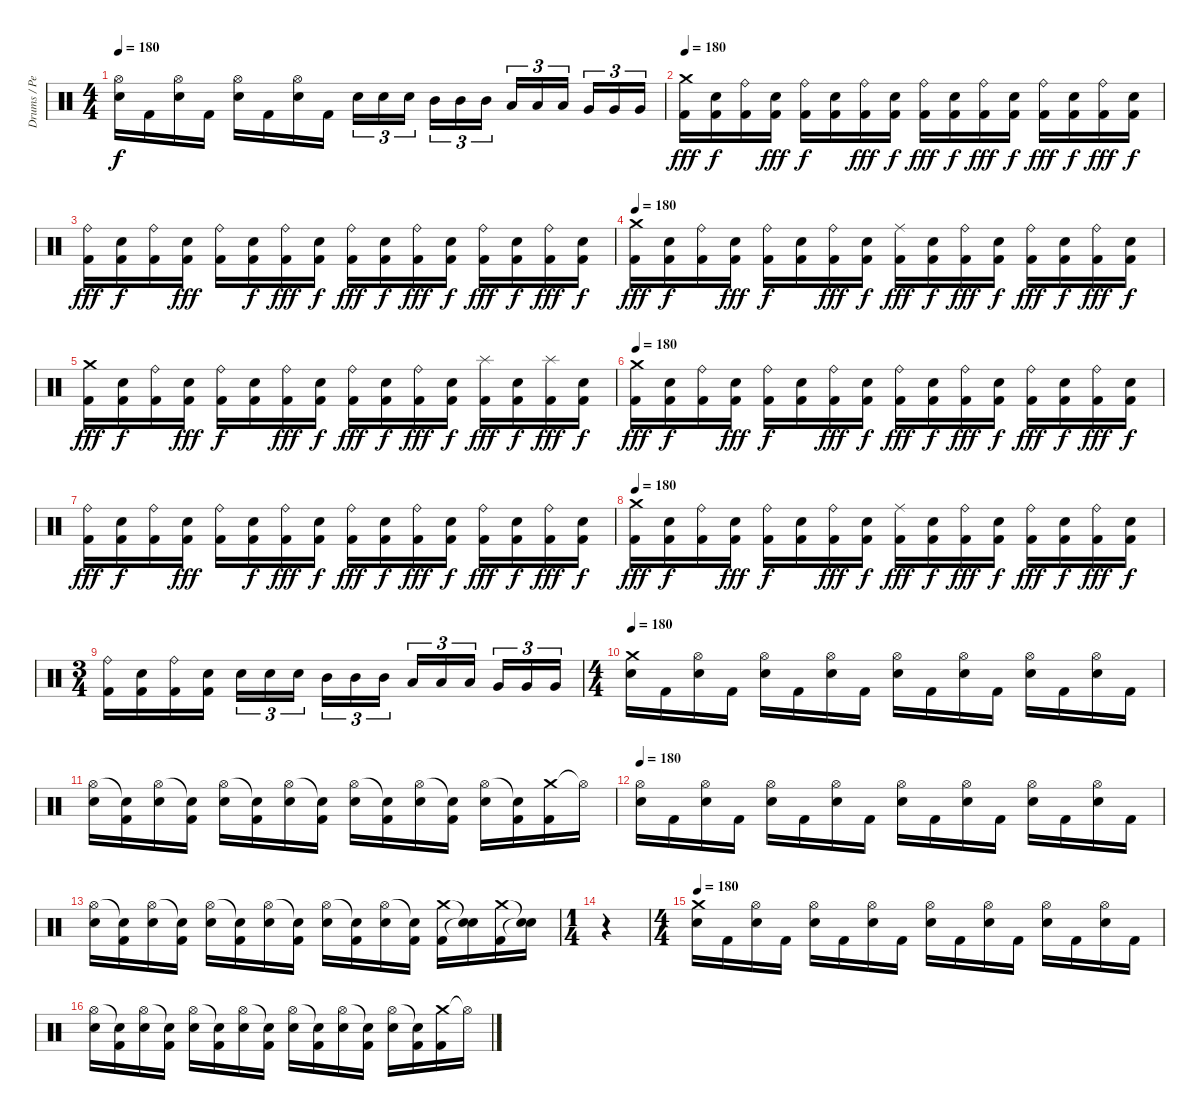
\track ("Drums / Percussion" "Drums / Pe") {instrument percussion}
\staff {score}
\articulation defaults
\ts (4 4)
\tempo 180
\clef neutral
\ks c
("Hi-Hat (open)" "Electric Snare (hit)").16{dy f} "Kick (hit) 2".16 ("Hi-Hat (open)" "Electric Snare (hit)").16 "Kick (hit) 2".16 ("Hi-Hat (open)" "Electric Snare (hit)").16 "Kick (hit) 2".16 ("Hi-Hat (open)" "Electric Snare (hit)").16 "Kick (hit) 2".16 "Snare (hit) 2".16{tu (3 2)} "Snare (hit) 2".16{tu (3 2)} "Snare (hit) 2".16{tu (3 2)} "Mid Tom (hit)".16{tu (3 2)} "Mid Tom (hit)".16{tu (3 2)} "Mid Tom (hit)".16{tu (3 2)} "Low Tom (hit)".16{tu (3 2)} "Low Tom (hit)".16{tu (3 2)} "Low Tom (hit)".16{tu (3 2)} "Very Low Tom (hit)".16{tu (3 2)} "Very Low Tom (hit)".16{tu (3 2)} "Very Low Tom (hit)".16{tu (3 2)} |
\tempo 180
("Crash medium (hit)" "Kick (hit) 2").16{dy fff} ("Snare (hit) 2" "Kick (hit) 2").16{dy f} ("Ride (bell)" "Kick (hit) 2").16 ("Snare (hit) 2" "Kick (hit) 2").16{dy fff} ("Ride (bell)" "Kick (hit) 2").16{dy f} ("Snare (hit) 2" "Kick (hit) 2").16 ("Ride (bell)" "Kick (hit) 2").16{dy fff} ("Snare (hit) 2" "Kick (hit) 2").16{dy f} ("Ride (bell)" "Kick (hit) 2").16{dy fff} ("Snare (hit) 2" "Kick (hit) 2").16{dy f} ("Ride (bell)" "Kick (hit) 2").16{dy fff} ("Snare (hit) 2" "Kick (hit) 2").16{dy f} ("Ride (bell)" "Kick (hit) 2").16{dy fff} ("Snare (hit) 2" "Kick (hit) 2").16{dy f} ("Ride (bell)" "Kick (hit) 2").16{dy fff} ("Snare (hit) 2" "Kick (hit) 2").16{dy f} |
("Ride (bell)" "Kick (hit) 2").16{dy fff} ("Snare (hit) 2" "Kick (hit) 2").16{dy f} ("Ride (bell)" "Kick (hit) 2").16 ("Snare (hit) 2" "Kick (hit) 2").16{dy fff} ("Ride (bell)" "Kick (hit) 2").16 ("Snare (hit) 2" "Kick (hit) 2").16{dy f} ("Ride (bell)" "Kick (hit) 2").16{dy fff} ("Snare (hit) 2" "Kick (hit) 2").16{dy f} ("Ride (bell)" "Kick (hit) 2").16{dy fff} ("Snare (hit) 2" "Kick (hit) 2").16{dy f} ("Ride (bell)" "Kick (hit) 2").16{dy fff} ("Snare (hit) 2" "Kick (hit) 2").16{dy f} ("Ride (bell)" "Kick (hit) 2").16{dy fff} ("Snare (hit) 2" "Kick (hit) 2").16{dy f} ("Ride (bell)" "Kick (hit) 2").16{dy fff} ("Snare (hit) 2" "Kick (hit) 2").16{dy f} |
\tempo 180
("Crash medium (hit)" "Kick (hit) 2").16{dy fff} ("Snare (hit) 2" "Kick (hit) 2").16{dy f} ("Ride (bell)" "Kick (hit) 2").16 ("Snare (hit) 2" "Kick (hit) 2").16{dy fff} ("Ride (bell)" "Kick (hit) 2").16{dy f} ("Snare (hit) 2" "Kick (hit) 2").16 ("Ride (bell)" "Kick (hit) 2").16{dy fff} ("Snare (hit) 2" "Kick (hit) 2").16{dy f} ("Ride (middle)" "Kick (hit) 2").16{dy fff} ("Snare (hit) 2" "Kick (hit) 2").16{dy f} ("Ride (bell)" "Kick (hit) 2").16{dy fff} ("Snare (hit) 2" "Kick (hit) 2").16{dy f} ("Ride (bell)" "Kick (hit) 2").16{dy fff} ("Snare (hit) 2" "Kick (hit) 2").16{dy f} ("Ride (bell)" "Kick (hit) 2").16{dy fff} ("Snare (hit) 2" "Kick (hit) 2").16{dy f} |
("Crash medium (hit)" "Kick (hit) 2").16{dy fff} ("Snare (hit) 2" "Kick (hit) 2").16{dy f} ("Ride (bell)" "Kick (hit) 2").16 ("Snare (hit) 2" "Kick (hit) 2").16{dy fff} ("Ride (bell)" "Kick (hit) 2").16{dy f} ("Snare (hit) 2" "Kick (hit) 2").16 ("Ride (bell)" "Kick (hit) 2").16{dy fff} ("Snare (hit) 2" "Kick (hit) 2").16{dy f} ("Ride (bell)" "Kick (hit) 2").16{dy fff} ("Snare (hit) 2" "Kick (hit) 2").16{dy f} ("Ride (bell)" "Kick (hit) 2").16{dy fff} ("Snare (hit) 2" "Kick (hit) 2").16{dy f} ("Splash (hit)" "Kick (hit) 2").16{dy fff} ("Snare (hit) 2" "Kick (hit) 2").16{dy f} ("Splash (hit)" "Kick (hit) 2").16{dy fff} ("Snare (hit) 2" "Kick (hit) 2").16{dy f} |
\tempo 180
("Crash medium (hit)" "Kick (hit) 2").16{dy fff} ("Snare (hit) 2" "Kick (hit) 2").16{dy f} ("Ride (bell)" "Kick (hit) 2").16 ("Snare (hit) 2" "Kick (hit) 2").16{dy fff} ("Ride (bell)" "Kick (hit) 2").16{dy f} ("Snare (hit) 2" "Kick (hit) 2").16 ("Ride (bell)" "Kick (hit) 2").16{dy fff} ("Snare (hit) 2" "Kick (hit) 2").16{dy f} ("Ride (bell)" "Kick (hit) 2").16{dy fff} ("Snare (hit) 2" "Kick (hit) 2").16{dy f} ("Ride (bell)" "Kick (hit) 2").16{dy fff} ("Snare (hit) 2" "Kick (hit) 2").16{dy f} ("Ride (bell)" "Kick (hit) 2").16{dy fff} ("Snare (hit) 2" "Kick (hit) 2").16{dy f} ("Ride (bell)" "Kick (hit) 2").16{dy fff} ("Snare (hit) 2" "Kick (hit) 2").16{dy f} |
("Ride (bell)" "Kick (hit) 2").16{dy fff} ("Snare (hit) 2" "Kick (hit) 2").16{dy f} ("Ride (bell)" "Kick (hit) 2").16 ("Snare (hit) 2" "Kick (hit) 2").16{dy fff} ("Ride (bell)" "Kick (hit) 2").16 ("Snare (hit) 2" "Kick (hit) 2").16{dy f} ("Ride (bell)" "Kick (hit) 2").16{dy fff} ("Snare (hit) 2" "Kick (hit) 2").16{dy f} ("Ride (bell)" "Kick (hit) 2").16{dy fff} ("Snare (hit) 2" "Kick (hit) 2").16{dy f} ("Ride (bell)" "Kick (hit) 2").16{dy fff} ("Snare (hit) 2" "Kick (hit) 2").16{dy f} ("Ride (bell)" "Kick (hit) 2").16{dy fff} ("Snare (hit) 2" "Kick (hit) 2").16{dy f} ("Ride (bell)" "Kick (hit) 2").16{dy fff} ("Snare (hit) 2" "Kick (hit) 2").16{dy f} |
\tempo 180
("Crash medium (hit)" "Kick (hit) 2").16{dy fff} ("Snare (hit) 2" "Kick (hit) 2").16{dy f} ("Ride (bell)" "Kick (hit) 2").16 ("Snare (hit) 2" "Kick (hit) 2").16{dy fff} ("Ride (bell)" "Kick (hit) 2").16{dy f} ("Snare (hit) 2" "Kick (hit) 2").16 ("Ride (bell)" "Kick (hit) 2").16{dy fff} ("Snare (hit) 2" "Kick (hit) 2").16{dy f} ("Ride (middle)" "Kick (hit) 2").16{dy fff} ("Snare (hit) 2" "Kick (hit) 2").16{dy f} ("Ride (bell)" "Kick (hit) 2").16{dy fff} ("Snare (hit) 2" "Kick (hit) 2").16{dy f} ("Ride (bell)" "Kick (hit) 2").16{dy fff} ("Snare (hit) 2" "Kick (hit) 2").16{dy f} ("Ride (bell)" "Kick (hit) 2").16{dy fff} ("Snare (hit) 2" "Kick (hit) 2").16{dy f} |
\ts (3 4)
("Ride (bell)" "Kick (hit) 2").16 ("Snare (hit) 2" "Kick (hit) 2").16 ("Ride (bell)" "Kick (hit) 2").16 ("Snare (hit) 2" "Kick (hit) 2").16 "Snare (hit) 2".16{tu (3 2)} "Snare (hit) 2".16{tu (3 2)} "Snare (hit) 2".16{tu (3 2)} "Mid Tom (hit)".16{tu (3 2)} "Mid Tom (hit)".16{tu (3 2)} "Mid Tom (hit)".16{tu (3 2)} "Low Tom (hit)".16{tu (3 2)} "Low Tom (hit)".16{tu (3 2)} "Low Tom (hit)".16{tu (3 2)} "Very Low Tom (hit)".16{tu (3 2)} "Very Low Tom (hit)".16{tu (3 2)} "Very Low Tom (hit)".16{tu (3 2)} |
\ts (4 4)
\tempo 180
("Crash medium (hit)" "Electric Snare (hit)").16 "Kick (hit) 2".16 ("Hi-Hat (open)" "Electric Snare (hit)").16 "Kick (hit) 2".16 ("Hi-Hat (open)" "Electric Snare (hit)").16 "Kick (hit) 2".16 ("Hi-Hat (open)" "Electric Snare (hit)").16 "Kick (hit) 2".16 ("Hi-Hat (open)" "Electric Snare (hit)").16 "Kick (hit) 2".16 ("Hi-Hat (open)" "Electric Snare (hit)").16 "Kick (hit) 2".16 ("Hi-Hat (open)" "Electric Snare (hit)").16 "Kick (hit) 2".16 ("Hi-Hat (open)" "Electric Snare (hit)").16 "Kick (hit) 2".16 |
("Hi-Hat (open)" "Electric Snare (hit)").16 ("Snare (hit)"{t} "Kick (hit) 2").16 ("Hi-Hat (open)" "Electric Snare (hit)").16 ("Snare (hit)"{t} "Kick (hit) 2").16 ("Hi-Hat (open)" "Electric Snare (hit)").16 ("Snare (hit)"{t} "Kick (hit) 2").16 ("Hi-Hat (open)" "Electric Snare (hit)").16 ("Snare (hit)"{t} "Kick (hit) 2").16 ("Hi-Hat (open)" "Electric Snare (hit)").16 ("Snare (hit)"{t} "Kick (hit) 2").16 ("Hi-Hat (open)" "Electric Snare (hit)").16 ("Snare (hit)"{t} "Kick (hit) 2").16 ("Hi-Hat (open)" "Electric Snare (hit)").16 ("Snare (hit)"{t} "Kick (hit) 2").16 ("Crash medium (hit)" "Kick (hit) 2").16 "Hi-Hat (open)"{t}.16 |
\tempo 180
("Hi-Hat (open)" "Electric Snare (hit)").16 "Kick (hit) 2".16 ("Hi-Hat (open)" "Electric Snare (hit)").16 "Kick (hit) 2".16 ("Hi-Hat (open)" "Electric Snare (hit)").16 "Kick (hit) 2".16 ("Hi-Hat (open)" "Electric Snare (hit)").16 "Kick (hit) 2".16 ("Hi-Hat (open)" "Electric Snare (hit)").16 "Kick (hit) 2".16 ("Hi-Hat (open)" "Electric Snare (hit)").16 "Kick (hit) 2".16 ("Hi-Hat (open)" "Electric Snare (hit)").16 "Kick (hit) 2".16 ("Hi-Hat (open)" "Electric Snare (hit)").16 "Kick (hit) 2".16 |
("Hi-Hat (open)" "Electric Snare (hit)").16 ("Snare (hit)"{t} "Kick (hit) 2").16 ("Hi-Hat (open)" "Electric Snare (hit)").16 ("Snare (hit)"{t} "Kick (hit) 2").16 ("Hi-Hat (open)" "Electric Snare (hit)").16 ("Snare (hit)"{t} "Kick (hit) 2").16 ("Hi-Hat (open)" "Electric Snare (hit)").16 ("Snare (hit)"{t} "Kick (hit) 2").16 ("Hi-Hat (open)" "Electric Snare (hit)").16 ("Snare (hit)"{t} "Kick (hit) 2").16 ("Hi-Hat (open)" "Electric Snare (hit)").16 ("Snare (hit)"{t} "Kick (hit) 2").16 ("Crash medium (hit)" "Kick (hit) 2").16 ("Snare (hit)"{t} "Snare (hit)"{t}).16 ("Crash medium (hit)" "Kick (hit) 2").16 ("Snare (hit)"{t} "Snare (hit)"{t}).16 |
\ts (1 4)
r.4 |
\ts (4 4)
\tempo 180
("Crash medium (hit)" "Electric Snare (hit)").16 "Kick (hit) 2".16 ("Hi-Hat (open)" "Electric Snare (hit)").16 "Kick (hit) 2".16 ("Hi-Hat (open)" "Electric Snare (hit)").16 "Kick (hit) 2".16 ("Hi-Hat (open)" "Electric Snare (hit)").16 "Kick (hit) 2".16 ("Hi-Hat (open)" "Electric Snare (hit)").16 "Kick (hit) 2".16 ("Hi-Hat (open)" "Electric Snare (hit)").16 "Kick (hit) 2".16 ("Hi-Hat (open)" "Electric Snare (hit)").16 "Kick (hit) 2".16 ("Hi-Hat (open)" "Electric Snare (hit)").16 "Kick (hit) 2".16 |
("Hi-Hat (open)" "Electric Snare (hit)").16 ("Snare (hit)"{t} "Kick (hit) 2").16 ("Hi-Hat (open)" "Electric Snare (hit)").16 ("Snare (hit)"{t} "Kick (hit) 2").16 ("Hi-Hat (open)" "Electric Snare (hit)").16 ("Snare (hit)"{t} "Kick (hit) 2").16 ("Hi-Hat (open)" "Electric Snare (hit)").16 ("Snare (hit)"{t} "Kick (hit) 2").16 ("Hi-Hat (open)" "Electric Snare (hit)").16 ("Snare (hit)"{t} "Kick (hit) 2").16 ("Hi-Hat (open)" "Electric Snare (hit)").16 ("Snare (hit)"{t} "Kick (hit) 2").16 ("Hi-Hat (open)" "Electric Snare (hit)").16 ("Snare (hit)"{t} "Kick (hit) 2").16 ("Crash medium (hit)" "Kick (hit) 2").16 "Hi-Hat (open)"{t}.16
